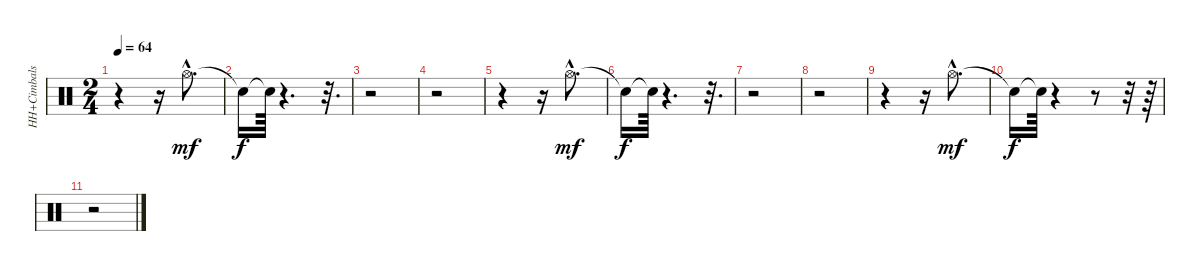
\track ("HH+Cimbals" "HH+Cimbals") {instrument percussion}
\staff {score}
\articulation defaults
\ts (2 4)
\tempo 64
\clef neutral
\ks c
r.4{dy f} r.16 "Hi-Hat (open)"{hac}.8{d dy mf} |
"Snare (hit)"{t}.16{dy f} "Snare (hit)"{t}.64 r.4{d} r.32{d} |
r.2 |
r.2 |
r.4 r.16 "Hi-Hat (open)"{hac}.8{d dy mf} |
"Snare (hit)"{t}.16{dy f} "Snare (hit)"{t}.64 r.4{d} r.32{d} |
r.2 |
r.2 |
r.4 r.16 "Hi-Hat (open)"{hac}.8{d dy mf} |
"Snare (hit)"{t}.16{dy f} "Snare (hit)"{t}.64 r.4 r.8 r.32 r.64 |
r.2
